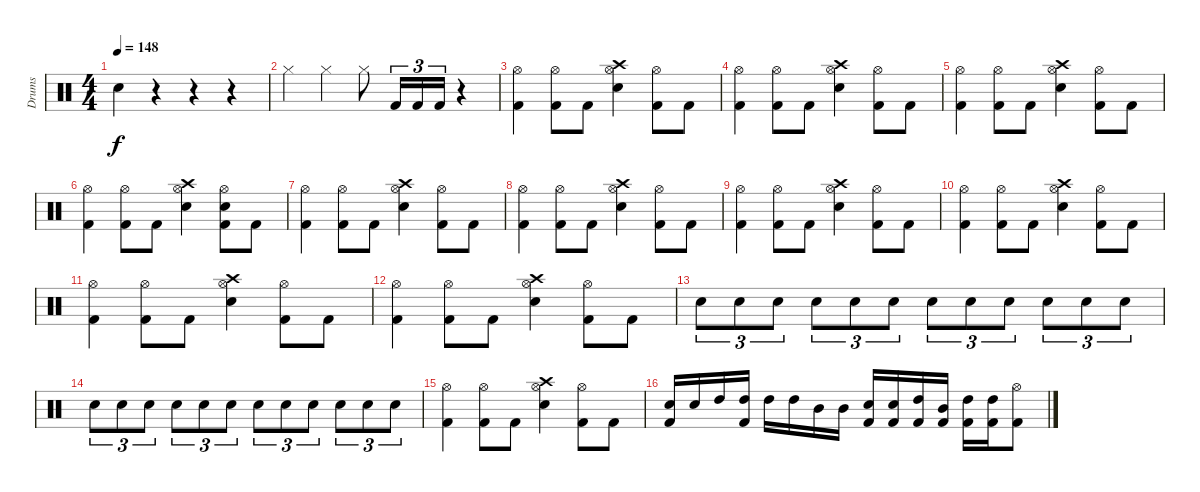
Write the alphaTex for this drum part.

\track ("Drums" "Drums") {instrument percussion}
\staff {score}
\articulation defaults
\ts (4 4)
\tempo 148
\clef neutral
\ks c "Snare (hit) 2".4{dy f}
r.4 r.4 r.4 |
"Hi-Hat (closed)".4 "Hi-Hat (closed)".4 "Hi-Hat (closed)".8 "Kick (hit) 2".16{tu (3 2)} "Kick (hit) 2".16{tu (3 2)} "Kick (hit) 2".16{tu (3 2)} r.4 |
("Hi-Hat (open)" "Kick (hit) 2").4 ("Hi-Hat (open)" "Kick (hit) 2").8 "Kick (hit) 2".8 ("Crash high (hit)" "Hi-Hat (open)" "Snare (hit) 2").4 ("Hi-Hat (open)" "Kick (hit) 2").8 "Kick (hit) 2".8 |
("Hi-Hat (open)" "Kick (hit) 2").4 ("Hi-Hat (open)" "Kick (hit) 2").8 "Kick (hit) 2".8 ("Crash high (hit)" "Hi-Hat (open)" "Snare (hit) 2").4 ("Hi-Hat (open)" "Kick (hit) 2").8 "Kick (hit) 2".8 |
("Hi-Hat (open)" "Kick (hit) 2").4 ("Hi-Hat (open)" "Kick (hit) 2").8 "Kick (hit) 2".8 ("Crash high (hit)" "Hi-Hat (open)" "Snare (hit) 2").4 ("Hi-Hat (open)" "Kick (hit) 2").8 "Kick (hit) 2".8 |
("Hi-Hat (open)" "Kick (hit) 2").4 ("Hi-Hat (open)" "Kick (hit) 2").8 "Kick (hit) 2".8 ("Crash high (hit)" "Hi-Hat (open)" "Snare (hit) 2").4 ("Hi-Hat (open)" "Snare (hit) 2" "Kick (hit) 2").8 "Kick (hit) 2".8 |
("Hi-Hat (open)" "Kick (hit) 2").4 ("Hi-Hat (open)" "Kick (hit) 2").8 "Kick (hit) 2".8 ("Crash high (hit)" "Hi-Hat (open)" "Snare (hit) 2").4 ("Hi-Hat (open)" "Kick (hit) 2").8 "Kick (hit) 2".8 |
("Hi-Hat (open)" "Kick (hit) 2").4 ("Hi-Hat (open)" "Kick (hit) 2").8 "Kick (hit) 2".8 ("Crash high (hit)" "Hi-Hat (open)" "Snare (hit) 2").4 ("Hi-Hat (open)" "Kick (hit) 2").8 "Kick (hit) 2".8 |
("Hi-Hat (open)" "Kick (hit) 2").4 ("Hi-Hat (open)" "Kick (hit) 2").8 "Kick (hit) 2".8 ("Crash high (hit)" "Hi-Hat (open)" "Snare (hit) 2").4 ("Hi-Hat (open)" "Kick (hit) 2").8 "Kick (hit) 2".8 |
("Hi-Hat (open)" "Kick (hit) 2").4 ("Hi-Hat (open)" "Kick (hit) 2").8 "Kick (hit) 2".8 ("Crash high (hit)" "Hi-Hat (open)" "Snare (hit) 2").4 ("Hi-Hat (open)" "Kick (hit) 2").8 "Kick (hit) 2".8 |
("Hi-Hat (open)" "Kick (hit) 2").4 ("Hi-Hat (open)" "Kick (hit) 2").8 "Kick (hit) 2".8 ("Crash high (hit)" "Hi-Hat (open)" "Snare (hit) 2").4 ("Hi-Hat (open)" "Kick (hit) 2").8 "Kick (hit) 2".8 |
("Hi-Hat (open)" "Kick (hit) 2").4 ("Hi-Hat (open)" "Kick (hit) 2").8 "Kick (hit) 2".8 ("Crash high (hit)" "Hi-Hat (open)" "Snare (hit) 2").4 ("Hi-Hat (open)" "Kick (hit) 2").8 "Kick (hit) 2".8 |
"Electric Snare (hit)".8{tu (3 2)} "Electric Snare (hit)".8{tu (3 2)} "Electric Snare (hit)".8{tu (3 2)} "Electric Snare (hit)".8{tu (3 2)} "Electric Snare (hit)".8{tu (3 2)} "Electric Snare (hit)".8{tu (3 2)} "Electric Snare (hit)".8{tu (3 2)} "Electric Snare (hit)".8{tu (3 2)} "Electric Snare (hit)".8{tu (3 2)} "Electric Snare (hit)".8{tu (3 2)} "Electric Snare (hit)".8{tu (3 2)} "Electric Snare (hit)".8{tu (3 2)} |
"Electric Snare (hit)".8{tu (3 2)} "Electric Snare (hit)".8{tu (3 2)} "Electric Snare (hit)".8{tu (3 2)} "Electric Snare (hit)".8{tu (3 2)} "Electric Snare (hit)".8{tu (3 2)} "Electric Snare (hit)".8{tu (3 2)} "Electric Snare (hit)".8{tu (3 2)} "Electric Snare (hit)".8{tu (3 2)} "Electric Snare (hit)".8{tu (3 2)} "Electric Snare (hit)".8{tu (3 2)} "Electric Snare (hit)".8{tu (3 2)} "Electric Snare (hit)".8{tu (3 2)} |
("Hi-Hat (open)" "Kick (hit) 2").4 ("Hi-Hat (open)" "Kick (hit) 2").8 "Kick (hit) 2".8 ("Crash high (hit)" "Hi-Hat (open)" "Snare (hit) 2").4 ("Hi-Hat (open)" "Kick (hit) 2").8 "Kick (hit) 2".8 |
("Snare (hit) 2" "Kick (hit) 2").16 "Snare (hit) 2".16 "High Tom (hit)".16 ("High Tom (hit)" "Kick (hit) 2").16 "High Tom (hit)".16 "High Tom (hit)".16 "Mid Tom (hit)".16 "Mid Tom (hit)".16 ("Snare (hit) 2" "Kick (hit) 2").16 ("Snare (hit) 2" "Kick (hit) 2").16 ("High Tom (hit)" "Kick (hit) 2").16 ("Mid Tom (hit)" "Kick (hit) 2").16 ("High Tom (hit)" "Kick (hit) 2").16 ("High Tom (hit)" "Kick (hit) 2").16 ("Hi-Hat (open)" "Kick (hit) 2").8
